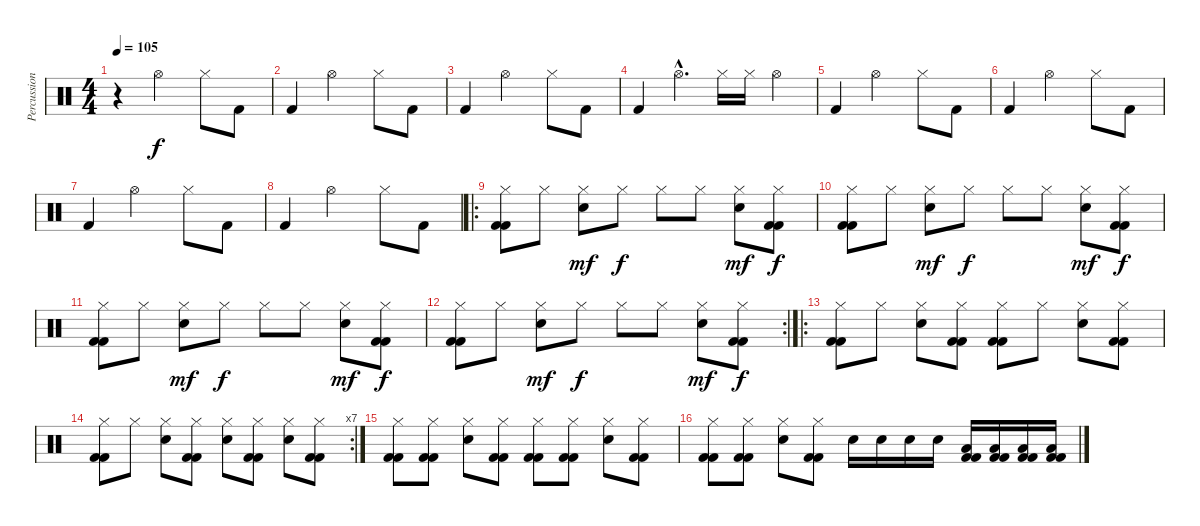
\track ("Percussions" "Percussion") {instrument percussion}
\staff {score}
\articulation defaults
\ts (4 4)
\tempo 105
\clef neutral
\ks c
r.4{dy f} "Hi-Hat (open)".2 "Hi-Hat (closed)".8 "Kick (hit) 2".8 |
"Kick (hit) 2".4 "Hi-Hat (open)".2 "Hi-Hat (closed)".8 "Kick (hit) 2".8 |
"Kick (hit) 2".4 "Hi-Hat (open)".2 "Hi-Hat (closed)".8 "Kick (hit) 2".8 |
"Kick (hit) 2".4 "Hi-Hat (open)"{hac}.4{d} "Hi-Hat (closed)".16 "Hi-Hat (closed)".16 "Hi-Hat (open)".4 |
"Kick (hit) 2".4 "Hi-Hat (open)".2 "Hi-Hat (closed)".8 "Kick (hit) 2".8 |
"Kick (hit) 2".4 "Hi-Hat (open)".2 "Hi-Hat (closed)".8 "Kick (hit) 2".8 |
"Kick (hit) 2".4 "Hi-Hat (open)".2 "Hi-Hat (closed)".8 "Kick (hit) 2".8 |
"Kick (hit) 2".4 "Hi-Hat (open)".2 "Hi-Hat (closed)".8 "Kick (hit) 2".8 |
\ro
("Hi-Hat (closed)" "Kick (hit) 2" "Kick (hit) 2").8 "Hi-Hat (closed)".8 ("Hi-Hat (closed)" "Electric Snare (hit)").8{dy mf} "Hi-Hat (closed)".8{dy f} "Hi-Hat (closed)".8 "Hi-Hat (closed)".8 ("Hi-Hat (closed)" "Electric Snare (hit)").8{dy mf} ("Hi-Hat (closed)" "Kick (hit) 2" "Kick (hit) 2").8{dy f} |
("Hi-Hat (closed)" "Kick (hit) 2" "Kick (hit) 2").8 "Hi-Hat (closed)".8 ("Hi-Hat (closed)" "Electric Snare (hit)").8{dy mf} "Hi-Hat (closed)".8{dy f} "Hi-Hat (closed)".8 "Hi-Hat (closed)".8 ("Hi-Hat (closed)" "Electric Snare (hit)").8{dy mf} ("Hi-Hat (closed)" "Kick (hit) 2" "Kick (hit) 2").8{dy f} |
("Hi-Hat (closed)" "Kick (hit) 2" "Kick (hit) 2").8 "Hi-Hat (closed)".8 ("Hi-Hat (closed)" "Electric Snare (hit)").8{dy mf} "Hi-Hat (closed)".8{dy f} "Hi-Hat (closed)".8 "Hi-Hat (closed)".8 ("Hi-Hat (closed)" "Electric Snare (hit)").8{dy mf} ("Hi-Hat (closed)" "Kick (hit) 2" "Kick (hit) 2").8{dy f} |
\rc 2
("Hi-Hat (closed)" "Kick (hit) 2" "Kick (hit) 2").8 "Hi-Hat (closed)".8 ("Hi-Hat (closed)" "Electric Snare (hit)").8{dy mf} "Hi-Hat (closed)".8{dy f} "Hi-Hat (closed)".8 "Hi-Hat (closed)".8 ("Hi-Hat (closed)" "Electric Snare (hit)").8{dy mf} ("Hi-Hat (closed)" "Kick (hit) 2" "Kick (hit) 2").8{dy f} |
\ro
("Hi-Hat (closed)" "Kick (hit) 2" "Kick (hit) 2").8 "Hi-Hat (closed)".8 ("Hi-Hat (closed)" "Electric Snare (hit)").8 ("Hi-Hat (closed)" "Kick (hit) 2" "Kick (hit) 2").8 ("Hi-Hat (closed)" "Kick (hit) 2" "Kick (hit) 2").8 "Hi-Hat (closed)".8 ("Hi-Hat (closed)" "Electric Snare (hit)").8 ("Hi-Hat (closed)" "Kick (hit) 2" "Kick (hit) 2").8 |
\rc 7
("Hi-Hat (closed)" "Kick (hit) 2" "Kick (hit) 2").8 "Hi-Hat (closed)".8 ("Hi-Hat (closed)" "Electric Snare (hit)").8 ("Hi-Hat (closed)" "Kick (hit) 2" "Kick (hit) 2").8 ("Hi-Hat (closed)" "Electric Snare (hit)").8 ("Hi-Hat (closed)" "Kick (hit) 2" "Kick (hit) 2").8 ("Hi-Hat (closed)" "Electric Snare (hit)").8 ("Hi-Hat (closed)" "Kick (hit) 2" "Kick (hit) 2").8 |
("Hi-Hat (closed)" "Kick (hit) 2" "Kick (hit) 2").8 ("Hi-Hat (closed)" "Kick (hit) 2" "Kick (hit) 2").8 ("Hi-Hat (closed)" "Electric Snare (hit)").8 ("Hi-Hat (closed)" "Kick (hit) 2" "Kick (hit) 2").8 ("Hi-Hat (closed)" "Kick (hit) 2" "Kick (hit) 2").8 ("Hi-Hat (closed)" "Kick (hit) 2" "Kick (hit) 2").8 ("Hi-Hat (closed)" "Electric Snare (hit)").8 ("Hi-Hat (closed)" "Kick (hit) 2" "Kick (hit) 2").8 |
("Hi-Hat (closed)" "Kick (hit) 2" "Kick (hit) 2").8 ("Hi-Hat (closed)" "Kick (hit) 2" "Kick (hit) 2").8 ("Hi-Hat (closed)" "Electric Snare (hit)").8 ("Hi-Hat (closed)" "Kick (hit) 2" "Kick (hit) 2").8 "Electric Snare (hit)".16 "Electric Snare (hit)".16 "Electric Snare (hit)".16 "Electric Snare (hit)".16 ("Low Floor Tom (hit)" "Kick (hit) 2" "Kick (hit) 2").16 ("Low Floor Tom (hit)" "Kick (hit) 2" "Kick (hit) 2").16 ("Low Floor Tom (hit)" "Kick (hit) 2" "Kick (hit) 2").16 ("Low Floor Tom (hit)" "Kick (hit) 2" "Kick (hit) 2").16
